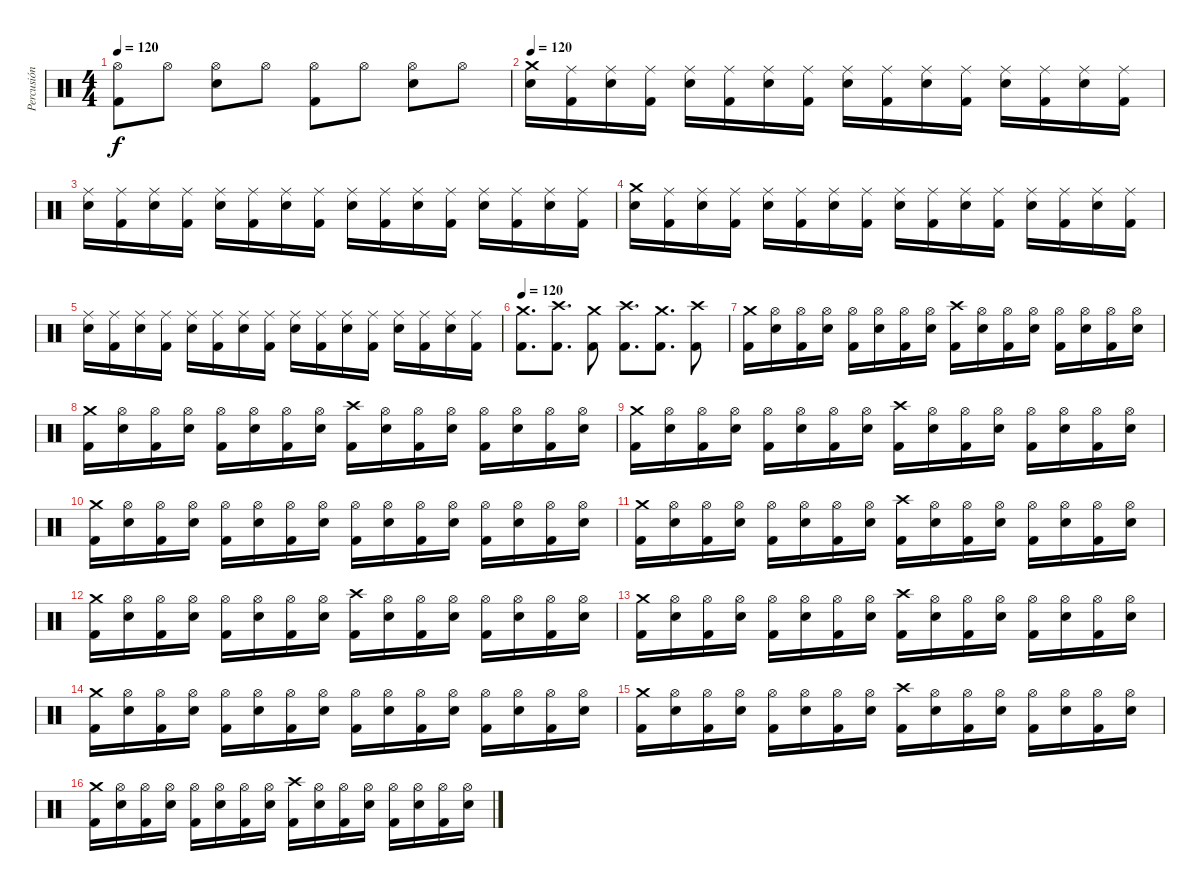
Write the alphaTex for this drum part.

\track ("Percusión" "Percusión") {instrument percussion}
\staff {score}
\articulation defaults
\ts (4 4)
\tempo 120
\clef neutral
\ks c
("Hi-Hat (open)" "Kick (hit) 2").8{dy f} "Hi-Hat (open)".8 ("Hi-Hat (open)" "Electric Snare (hit)").8 "Hi-Hat (open)".8 ("Hi-Hat (open)" "Kick (hit) 2").8 "Hi-Hat (open)".8 ("Hi-Hat (open)" "Electric Snare (hit)").8 "Hi-Hat (open)".8 |
\tempo 120
("Crash medium (hit)" "Electric Snare (hit)").16 ("Ride (middle)" "Kick (hit) 2").16 ("Ride (middle)" "Electric Snare (hit)").16 ("Ride (middle)" "Kick (hit) 2").16 ("Ride (middle)" "Electric Snare (hit)").16 ("Ride (middle)" "Kick (hit) 2").16 ("Ride (middle)" "Electric Snare (hit)").16 ("Ride (middle)" "Kick (hit) 2").16 ("Ride (middle)" "Electric Snare (hit)").16 ("Ride (middle)" "Kick (hit) 2").16 ("Ride (middle)" "Electric Snare (hit)").16 ("Ride (middle)" "Kick (hit) 2").16 ("Ride (middle)" "Electric Snare (hit)").16 ("Ride (middle)" "Kick (hit) 2").16 ("Ride (middle)" "Electric Snare (hit)").16 ("Ride (middle)" "Kick (hit) 2").16 |
("Ride (middle)" "Electric Snare (hit)").16 ("Ride (middle)" "Kick (hit) 2").16 ("Ride (middle)" "Electric Snare (hit)").16 ("Ride (middle)" "Kick (hit) 2").16 ("Ride (middle)" "Electric Snare (hit)").16 ("Ride (middle)" "Kick (hit) 2").16 ("Ride (middle)" "Electric Snare (hit)").16 ("Ride (middle)" "Kick (hit) 2").16 ("Ride (middle)" "Electric Snare (hit)").16 ("Ride (middle)" "Kick (hit) 2").16 ("Ride (middle)" "Electric Snare (hit)").16 ("Ride (middle)" "Kick (hit) 2").16 ("Ride (middle)" "Electric Snare (hit)").16 ("Ride (middle)" "Kick (hit) 2").16 ("Ride (middle)" "Electric Snare (hit)").16 ("Ride (middle)" "Kick (hit) 2").16 |
("Crash medium (hit)" "Electric Snare (hit)").16 ("Ride (middle)" "Kick (hit) 2").16 ("Ride (middle)" "Electric Snare (hit)").16 ("Ride (middle)" "Kick (hit) 2").16 ("Ride (middle)" "Electric Snare (hit)").16 ("Ride (middle)" "Kick (hit) 2").16 ("Ride (middle)" "Electric Snare (hit)").16 ("Ride (middle)" "Kick (hit) 2").16 ("Ride (middle)" "Electric Snare (hit)").16 ("Ride (middle)" "Kick (hit) 2").16 ("Ride (middle)" "Electric Snare (hit)").16 ("Ride (middle)" "Kick (hit) 2").16 ("Ride (middle)" "Electric Snare (hit)").16 ("Ride (middle)" "Kick (hit) 2").16 ("Ride (middle)" "Electric Snare (hit)").16 ("Ride (middle)" "Kick (hit) 2").16 |
("Ride (middle)" "Electric Snare (hit)").16 ("Ride (middle)" "Kick (hit) 2").16 ("Ride (middle)" "Electric Snare (hit)").16 ("Ride (middle)" "Kick (hit) 2").16 ("Ride (middle)" "Electric Snare (hit)").16 ("Ride (middle)" "Kick (hit) 2").16 ("Ride (middle)" "Electric Snare (hit)").16 ("Ride (middle)" "Kick (hit) 2").16 ("Ride (middle)" "Electric Snare (hit)").16 ("Ride (middle)" "Kick (hit) 2").16 ("Ride (middle)" "Electric Snare (hit)").16 ("Ride (middle)" "Kick (hit) 2").16 ("Ride (middle)" "Electric Snare (hit)").16 ("Ride (middle)" "Kick (hit) 2").16 ("Ride (middle)" "Electric Snare (hit)").16 ("Ride (middle)" "Kick (hit) 2").16 |
\tempo 120
("Crash medium (hit)" "Kick (hit) 2").8{d} ("Crash high (hit)" "Kick (hit) 2").8{d} ("Crash medium (hit)" "Kick (hit) 2").8 ("Crash high (hit)" "Kick (hit) 2").8{d} ("Crash medium (hit)" "Kick (hit) 2").8{d} ("Crash high (hit)" "Kick (hit) 2").8 |
("Crash medium (hit)" "Kick (hit) 2").16 ("Hi-Hat (open)" "Electric Snare (hit)").16 ("Hi-Hat (open)" "Kick (hit) 2").16 ("Hi-Hat (open)" "Electric Snare (hit)").16 ("Hi-Hat (open)" "Kick (hit) 2").16 ("Hi-Hat (open)" "Electric Snare (hit)").16 ("Hi-Hat (open)" "Kick (hit) 2").16 ("Hi-Hat (open)" "Electric Snare (hit)").16 ("Crash high (hit)" "Kick (hit) 2").16 ("Hi-Hat (open)" "Electric Snare (hit)").16 ("Hi-Hat (open)" "Kick (hit) 2").16 ("Hi-Hat (open)" "Electric Snare (hit)").16 ("Hi-Hat (open)" "Kick (hit) 2").16 ("Hi-Hat (open)" "Electric Snare (hit)").16 ("Hi-Hat (open)" "Kick (hit) 2").16 ("Hi-Hat (open)" "Electric Snare (hit)").16 |
("Crash medium (hit)" "Kick (hit) 2").16 ("Hi-Hat (open)" "Electric Snare (hit)").16 ("Hi-Hat (open)" "Kick (hit) 2").16 ("Hi-Hat (open)" "Electric Snare (hit)").16 ("Hi-Hat (open)" "Kick (hit) 2").16 ("Hi-Hat (open)" "Electric Snare (hit)").16 ("Hi-Hat (open)" "Kick (hit) 2").16 ("Hi-Hat (open)" "Electric Snare (hit)").16 ("Crash high (hit)" "Kick (hit) 2").16 ("Hi-Hat (open)" "Electric Snare (hit)").16 ("Hi-Hat (open)" "Kick (hit) 2").16 ("Hi-Hat (open)" "Electric Snare (hit)").16 ("Hi-Hat (open)" "Kick (hit) 2").16 ("Hi-Hat (open)" "Electric Snare (hit)").16 ("Hi-Hat (open)" "Kick (hit) 2").16 ("Hi-Hat (open)" "Electric Snare (hit)").16 |
("Crash medium (hit)" "Kick (hit) 2").16 ("Hi-Hat (open)" "Electric Snare (hit)").16 ("Hi-Hat (open)" "Kick (hit) 2").16 ("Hi-Hat (open)" "Electric Snare (hit)").16 ("Hi-Hat (open)" "Kick (hit) 2").16 ("Hi-Hat (open)" "Electric Snare (hit)").16 ("Hi-Hat (open)" "Kick (hit) 2").16 ("Hi-Hat (open)" "Electric Snare (hit)").16 ("Crash high (hit)" "Kick (hit) 2").16 ("Hi-Hat (open)" "Electric Snare (hit)").16 ("Hi-Hat (open)" "Kick (hit) 2").16 ("Hi-Hat (open)" "Electric Snare (hit)").16 ("Hi-Hat (open)" "Kick (hit) 2").16 ("Hi-Hat (open)" "Electric Snare (hit)").16 ("Hi-Hat (open)" "Kick (hit) 2").16 ("Hi-Hat (open)" "Electric Snare (hit)").16 |
("Crash medium (hit)" "Kick (hit) 2").16 ("Hi-Hat (open)" "Electric Snare (hit)").16 ("Hi-Hat (open)" "Kick (hit) 2").16 ("Hi-Hat (open)" "Electric Snare (hit)").16 ("Hi-Hat (open)" "Kick (hit) 2").16 ("Hi-Hat (open)" "Electric Snare (hit)").16 ("Hi-Hat (open)" "Kick (hit) 2").16 ("Hi-Hat (open)" "Electric Snare (hit)").16 ("Hi-Hat (open)" "Kick (hit) 2").16 ("Hi-Hat (open)" "Electric Snare (hit)").16 ("Hi-Hat (open)" "Kick (hit) 2").16 ("Hi-Hat (open)" "Electric Snare (hit)").16 ("Hi-Hat (open)" "Kick (hit) 2").16 ("Hi-Hat (open)" "Electric Snare (hit)").16 ("Hi-Hat (open)" "Kick (hit) 2").16 ("Hi-Hat (open)" "Electric Snare (hit)").16 |
("Crash medium (hit)" "Kick (hit) 2").16 ("Hi-Hat (open)" "Electric Snare (hit)").16 ("Hi-Hat (open)" "Kick (hit) 2").16 ("Hi-Hat (open)" "Electric Snare (hit)").16 ("Hi-Hat (open)" "Kick (hit) 2").16 ("Hi-Hat (open)" "Electric Snare (hit)").16 ("Hi-Hat (open)" "Kick (hit) 2").16 ("Hi-Hat (open)" "Electric Snare (hit)").16 ("Crash high (hit)" "Kick (hit) 2").16 ("Hi-Hat (open)" "Electric Snare (hit)").16 ("Hi-Hat (open)" "Kick (hit) 2").16 ("Hi-Hat (open)" "Electric Snare (hit)").16 ("Hi-Hat (open)" "Kick (hit) 2").16 ("Hi-Hat (open)" "Electric Snare (hit)").16 ("Hi-Hat (open)" "Kick (hit) 2").16 ("Hi-Hat (open)" "Electric Snare (hit)").16 |
("Crash medium (hit)" "Kick (hit) 2").16 ("Hi-Hat (open)" "Electric Snare (hit)").16 ("Hi-Hat (open)" "Kick (hit) 2").16 ("Hi-Hat (open)" "Electric Snare (hit)").16 ("Hi-Hat (open)" "Kick (hit) 2").16 ("Hi-Hat (open)" "Electric Snare (hit)").16 ("Hi-Hat (open)" "Kick (hit) 2").16 ("Hi-Hat (open)" "Electric Snare (hit)").16 ("Crash high (hit)" "Kick (hit) 2").16 ("Hi-Hat (open)" "Electric Snare (hit)").16 ("Hi-Hat (open)" "Kick (hit) 2").16 ("Hi-Hat (open)" "Electric Snare (hit)").16 ("Hi-Hat (open)" "Kick (hit) 2").16 ("Hi-Hat (open)" "Electric Snare (hit)").16 ("Hi-Hat (open)" "Kick (hit) 2").16 ("Hi-Hat (open)" "Electric Snare (hit)").16 |
("Crash medium (hit)" "Kick (hit) 2").16 ("Hi-Hat (open)" "Electric Snare (hit)").16 ("Hi-Hat (open)" "Kick (hit) 2").16 ("Hi-Hat (open)" "Electric Snare (hit)").16 ("Hi-Hat (open)" "Kick (hit) 2").16 ("Hi-Hat (open)" "Electric Snare (hit)").16 ("Hi-Hat (open)" "Kick (hit) 2").16 ("Hi-Hat (open)" "Electric Snare (hit)").16 ("Crash high (hit)" "Kick (hit) 2").16 ("Hi-Hat (open)" "Electric Snare (hit)").16 ("Hi-Hat (open)" "Kick (hit) 2").16 ("Hi-Hat (open)" "Electric Snare (hit)").16 ("Hi-Hat (open)" "Kick (hit) 2").16 ("Hi-Hat (open)" "Electric Snare (hit)").16 ("Hi-Hat (open)" "Kick (hit) 2").16 ("Hi-Hat (open)" "Electric Snare (hit)").16 |
("Crash medium (hit)" "Kick (hit) 2").16 ("Hi-Hat (open)" "Electric Snare (hit)").16 ("Hi-Hat (open)" "Kick (hit) 2").16 ("Hi-Hat (open)" "Electric Snare (hit)").16 ("Hi-Hat (open)" "Kick (hit) 2").16 ("Hi-Hat (open)" "Electric Snare (hit)").16 ("Hi-Hat (open)" "Kick (hit) 2").16 ("Hi-Hat (open)" "Electric Snare (hit)").16 ("Hi-Hat (open)" "Kick (hit) 2").16 ("Hi-Hat (open)" "Electric Snare (hit)").16 ("Hi-Hat (open)" "Kick (hit) 2").16 ("Hi-Hat (open)" "Electric Snare (hit)").16 ("Hi-Hat (open)" "Kick (hit) 2").16 ("Hi-Hat (open)" "Electric Snare (hit)").16 ("Hi-Hat (open)" "Kick (hit) 2").16 ("Hi-Hat (open)" "Electric Snare (hit)").16 |
("Crash medium (hit)" "Kick (hit) 2").16 ("Hi-Hat (open)" "Electric Snare (hit)").16 ("Hi-Hat (open)" "Kick (hit) 2").16 ("Hi-Hat (open)" "Electric Snare (hit)").16 ("Hi-Hat (open)" "Kick (hit) 2").16 ("Hi-Hat (open)" "Electric Snare (hit)").16 ("Hi-Hat (open)" "Kick (hit) 2").16 ("Hi-Hat (open)" "Electric Snare (hit)").16 ("Crash high (hit)" "Kick (hit) 2").16 ("Hi-Hat (open)" "Electric Snare (hit)").16 ("Hi-Hat (open)" "Kick (hit) 2").16 ("Hi-Hat (open)" "Electric Snare (hit)").16 ("Hi-Hat (open)" "Kick (hit) 2").16 ("Hi-Hat (open)" "Electric Snare (hit)").16 ("Hi-Hat (open)" "Kick (hit) 2").16 ("Hi-Hat (open)" "Electric Snare (hit)").16 |
("Crash medium (hit)" "Kick (hit) 2").16 ("Hi-Hat (open)" "Electric Snare (hit)").16 ("Hi-Hat (open)" "Kick (hit) 2").16 ("Hi-Hat (open)" "Electric Snare (hit)").16 ("Hi-Hat (open)" "Kick (hit) 2").16 ("Hi-Hat (open)" "Electric Snare (hit)").16 ("Hi-Hat (open)" "Kick (hit) 2").16 ("Hi-Hat (open)" "Electric Snare (hit)").16 ("Crash high (hit)" "Kick (hit) 2").16 ("Hi-Hat (open)" "Electric Snare (hit)").16 ("Hi-Hat (open)" "Kick (hit) 2").16 ("Hi-Hat (open)" "Electric Snare (hit)").16 ("Hi-Hat (open)" "Kick (hit) 2").16 ("Hi-Hat (open)" "Electric Snare (hit)").16 ("Hi-Hat (open)" "Kick (hit) 2").16 ("Hi-Hat (open)" "Electric Snare (hit)").16
